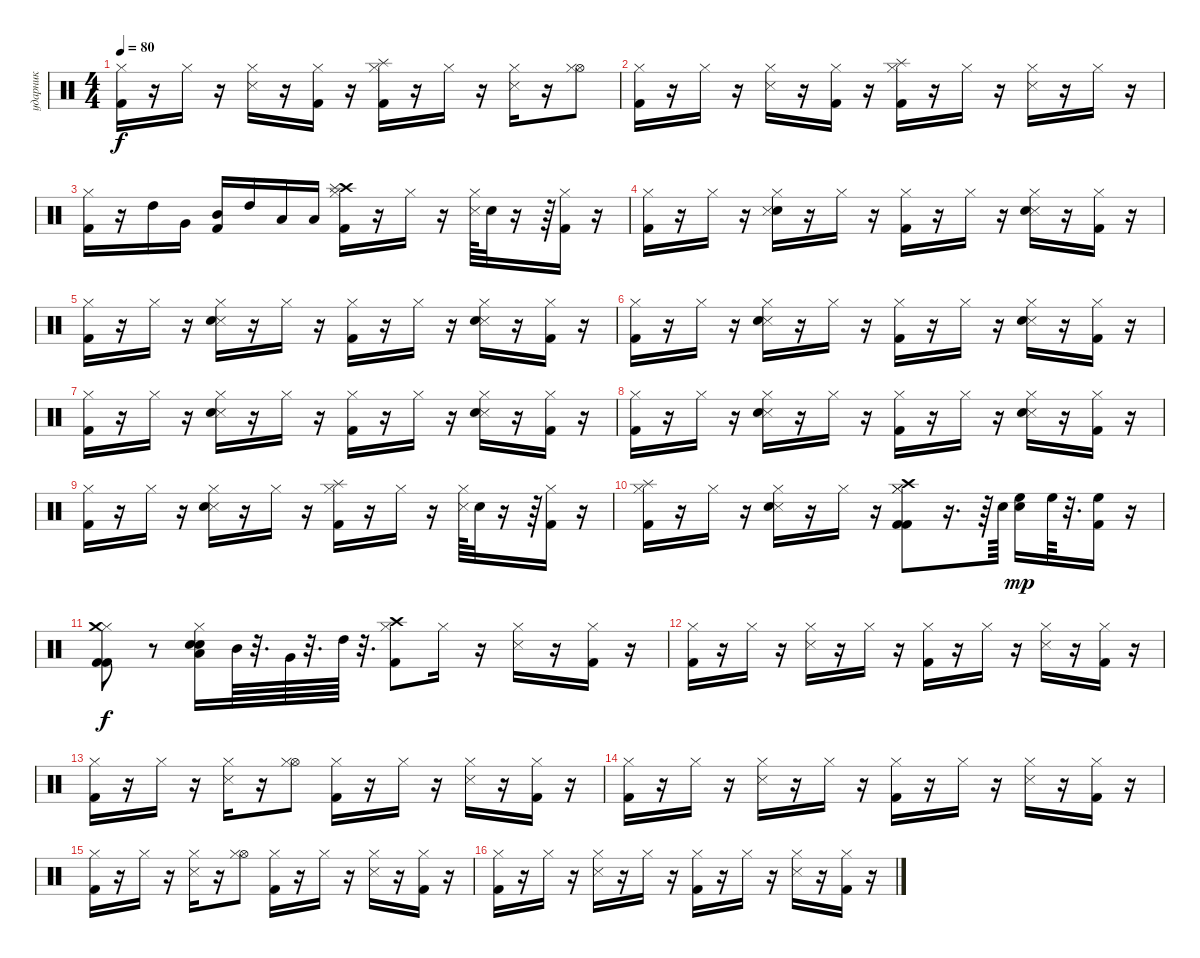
\track ("ударник" "ударник") {instrument percussion}
\staff {score}
\articulation defaults
\ts (4 4)
\tempo 80
\clef neutral
\ks c
("Hi-Hat (closed)" "Kick (hit) 2").16{dy f} r.16 "Hi-Hat (closed)".16 r.16 ("Hi-Hat (closed)" "Snare (side stick) 3").16 r.16 ("Kick (hit) 2" "Hi-Hat (closed)").16 r.16 ("Hi-Hat (closed)" "Kick (hit) 2" "Splash (hit)").16 r.16 "Hi-Hat (closed)".16 r.16 ("Snare (side stick) 3" "Hi-Hat (closed)").16 r.16 ("Hi-Hat (open)" "Hi-Hat (closed)").8 |
("Kick (hit) 2" "Hi-Hat (closed)").16 r.16 "Hi-Hat (closed)".16 r.16 ("Hi-Hat (closed)" "Snare (side stick) 3").16 r.16 ("Kick (hit) 2" "Hi-Hat (closed)").16 r.16 ("Hi-Hat (closed)" "Splash (hit)" "Kick (hit) 2").16 r.16 "Hi-Hat (closed)".16 r.16 ("Hi-Hat (closed)" "Snare (side stick) 3").16 r.16 "Hi-Hat (closed)".16 r.16 |
("Kick (hit) 2" "Hi-Hat (closed)").16 r.16 "High Tom (hit)".16 "Very Low Tom (hit)".16 ("Kick (hit) 2" "Mid Tom (hit)").16 "High Tom (hit)".16 "Low Tom (hit)".16 "Low Tom (hit)".16 ("Crash high (hit)" "Splash (hit)" "Kick (hit) 2" "Hi-Hat (closed)").16 r.16 "Hi-Hat (closed)".16 r.16 ("Snare (side stick) 3" "Hi-Hat (closed)").64 "Hand Clap (hit)".32 r.16 r.64 ("Kick (hit) 2" "Hi-Hat (closed)").16 r.16 |
("Hi-Hat (closed)" "Kick (hit) 2").16 r.16 "Hi-Hat (closed)".16 r.16 ("Hand Clap (hit)" "Snare (side stick) 3" "Hi-Hat (closed)").16 r.16 "Hi-Hat (closed)".16 r.16 ("Hi-Hat (closed)" "Kick (hit) 2").16 r.16 "Hi-Hat (closed)".16 r.16 ("Hi-Hat (closed)" "Snare (side stick) 3" "Hand Clap (hit)").16 r.16 ("Kick (hit) 2" "Hi-Hat (closed)").16 r.16 |
("Hi-Hat (closed)" "Kick (hit) 2").16 r.16 "Hi-Hat (closed)".16 r.16 ("Snare (side stick) 3" "Hi-Hat (closed)" "Hand Clap (hit)").16 r.16 "Hi-Hat (closed)".16 r.16 ("Kick (hit) 2" "Hi-Hat (closed)").16 r.16 "Hi-Hat (closed)".16 r.16 ("Hi-Hat (closed)" "Snare (side stick) 3" "Hand Clap (hit)").16 r.16 ("Hi-Hat (closed)" "Kick (hit) 2").16 r.16 |
("Kick (hit) 2" "Hi-Hat (closed)").16 r.16 "Hi-Hat (closed)".16 r.16 ("Snare (side stick) 3" "Hi-Hat (closed)" "Hand Clap (hit)").16 r.16 "Hi-Hat (closed)".16 r.16 ("Hi-Hat (closed)" "Kick (hit) 2").16 r.16 "Hi-Hat (closed)".16 r.16 ("Snare (side stick) 3" "Hi-Hat (closed)" "Hand Clap (hit)").16 r.16 ("Kick (hit) 2" "Hi-Hat (closed)").16 r.16 |
("Hi-Hat (closed)" "Kick (hit) 2").16 r.16 "Hi-Hat (closed)".16 r.16 ("Snare (side stick) 3" "Hand Clap (hit)" "Hi-Hat (closed)").16 r.16 "Hi-Hat (closed)".16 r.16 ("Kick (hit) 2" "Hi-Hat (closed)").16 r.16 "Hi-Hat (closed)".16 r.16 ("Hi-Hat (closed)" "Snare (side stick) 3" "Hand Clap (hit)").16 r.16 ("Hi-Hat (closed)" "Kick (hit) 2").16 r.16 |
("Kick (hit) 2" "Hi-Hat (closed)").16 r.16 "Hi-Hat (closed)".16 r.16 ("Snare (side stick) 3" "Hi-Hat (closed)" "Hand Clap (hit)").16 r.16 "Hi-Hat (closed)".16 r.16 ("Kick (hit) 2" "Hi-Hat (closed)").16 r.16 "Hi-Hat (closed)".16 r.16 ("Snare (side stick) 3" "Hi-Hat (closed)" "Hand Clap (hit)").16 r.16 ("Kick (hit) 2" "Hi-Hat (closed)").16 r.16 |
("Hi-Hat (closed)" "Kick (hit) 2").16 r.16 "Hi-Hat (closed)".16 r.16 ("Hi-Hat (closed)" "Snare (side stick) 3" "Hand Clap (hit)").16 r.16 "Hi-Hat (closed)".16 r.16 ("Splash (hit)" "Hi-Hat (closed)" "Kick (hit) 2").16 r.16 "Hi-Hat (closed)".16 r.16 ("Snare (side stick) 3" "Hi-Hat (closed)").64 "Hand Clap (hit)".32 r.16 r.64 ("Kick (hit) 2" "Hi-Hat (closed)").16 r.16 |
("Splash (hit)" "Hi-Hat (closed)" "Kick (hit) 2").16 r.16 "Hi-Hat (closed)".16 r.16 ("Snare (side stick) 3" "Hand Clap (hit)" "Hi-Hat (closed)").16 r.16 "Hi-Hat (closed)".16 r.16 ("Hi-Hat (closed)" "Kick (hit) 2" "Crash high (hit)" "Hi-Hat (closed)" "Kick (hit) 2").8 r.16{d} r.64 "Hand Clap (hit)".64 ("High Floor Tom (hit)" "Snare (hit) 2").16{dy mp} "High Floor Tom (hit)".64 r.32{d} ("Kick (hit) 2" "High Floor Tom (hit)").16 r.16 |
("Kick (hit) 2" "Hi-Hat (closed)" "Kick (hit) 2" "Crash medium (hit)").8{dy f} r.8 ("Hand Clap (hit)" "Hi-Hat (closed)" "Low Tom (hit)" "Snare (hit) 2").16 "Mid Tom (hit)".64 r.32{d} "Very Low Tom (hit)".64 r.32{d} "High Tom (hit)".64 r.32{d} ("Crash high (hit)" "Kick (hit) 2" "Hi-Hat (closed)").8 "Hi-Hat (closed)".16 r.16 ("Snare (side stick) 3" "Hi-Hat (closed)").16 r.16 ("Hi-Hat (closed)" "Kick (hit) 2").16 r.16 |
("Kick (hit) 2" "Hi-Hat (closed)").16 r.16 "Hi-Hat (closed)".16 r.16 ("Snare (side stick) 3" "Hi-Hat (closed)").16 r.16 "Hi-Hat (closed)".16 r.16 ("Kick (hit) 2" "Hi-Hat (closed)").16 r.16 "Hi-Hat (closed)".16 r.16 ("Hi-Hat (closed)" "Snare (side stick) 3").16 r.16 ("Kick (hit) 2" "Hi-Hat (closed)").16 r.16 |
("Kick (hit) 2" "Hi-Hat (closed)").16 r.16 "Hi-Hat (closed)".16 r.16 ("Snare (side stick) 3" "Hi-Hat (closed)").16 r.16 ("Hi-Hat (open)" "Hi-Hat (closed)").8 ("Kick (hit) 2" "Hi-Hat (closed)").16 r.16 "Hi-Hat (closed)".16 r.16 ("Snare (side stick) 3" "Hi-Hat (closed)").16 r.16 ("Hi-Hat (closed)" "Kick (hit) 2").16 r.16 |
("Kick (hit) 2" "Hi-Hat (closed)").16 r.16 "Hi-Hat (closed)".16 r.16 ("Snare (side stick) 3" "Hi-Hat (closed)").16 r.16 "Hi-Hat (closed)".16 r.16 ("Kick (hit) 2" "Hi-Hat (closed)").16 r.16 "Hi-Hat (closed)".16 r.16 ("Hi-Hat (closed)" "Snare (side stick) 3").16 r.16 ("Kick (hit) 2" "Hi-Hat (closed)").16 r.16 |
("Kick (hit) 2" "Hi-Hat (closed)").16 r.16 "Hi-Hat (closed)".16 r.16 ("Snare (side stick) 3" "Hi-Hat (closed)").16 r.16 ("Hi-Hat (open)" "Hi-Hat (closed)").8 ("Kick (hit) 2" "Hi-Hat (closed)").16 r.16 "Hi-Hat (closed)".16 r.16 ("Snare (side stick) 3" "Hi-Hat (closed)").16 r.16 ("Hi-Hat (closed)" "Kick (hit) 2").16 r.16 |
("Kick (hit) 2" "Hi-Hat (closed)").16 r.16 "Hi-Hat (closed)".16 r.16 ("Snare (side stick) 3" "Hi-Hat (closed)").16 r.16 "Hi-Hat (closed)".16 r.16 ("Kick (hit) 2" "Hi-Hat (closed)").16 r.16 "Hi-Hat (closed)".16 r.16 ("Hi-Hat (closed)" "Snare (side stick) 3").16 r.16 ("Kick (hit) 2" "Hi-Hat (closed)").16 r.16
